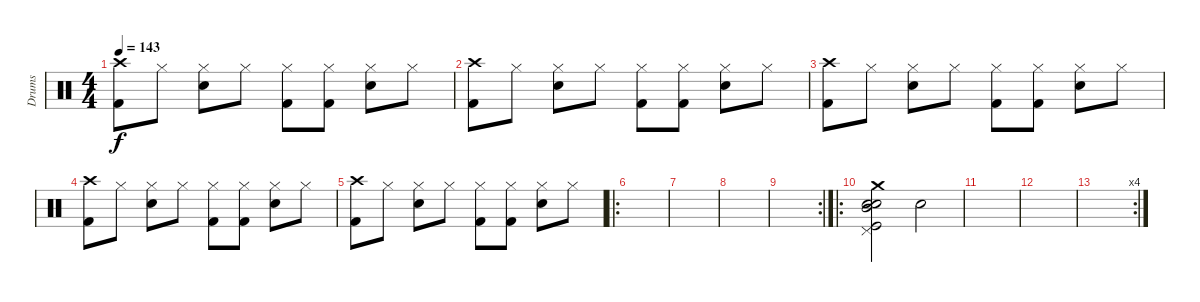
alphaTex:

\track ("Drums" "Drums") {instrument percussion}
\staff {score}
\articulation defaults
\ts (4 4)
\tempo 143
\clef neutral
\ks c
("Crash high (hit)" "Kick (hit) 2").8{dy f} "Hi-Hat (closed)".8 ("Hi-Hat (closed)" "Electric Snare (hit)").8 "Hi-Hat (closed)".8 ("Hi-Hat (closed)" "Kick (hit) 2").8 ("Hi-Hat (closed)" "Kick (hit) 2").8 ("Hi-Hat (closed)" "Electric Snare (hit)").8 "Hi-Hat (closed)".8 |
("Crash high (hit)" "Kick (hit) 2").8 "Hi-Hat (closed)".8 ("Hi-Hat (closed)" "Electric Snare (hit)").8 "Hi-Hat (closed)".8 ("Hi-Hat (closed)" "Kick (hit) 2").8 ("Hi-Hat (closed)" "Kick (hit) 2").8 ("Hi-Hat (closed)" "Electric Snare (hit)").8 "Hi-Hat (closed)".8 |
("Crash high (hit)" "Kick (hit) 2").8 "Hi-Hat (closed)".8 ("Hi-Hat (closed)" "Electric Snare (hit)").8 "Hi-Hat (closed)".8 ("Hi-Hat (closed)" "Kick (hit) 2").8 ("Hi-Hat (closed)" "Kick (hit) 2").8 ("Hi-Hat (closed)" "Electric Snare (hit)").8 "Hi-Hat (closed)".8 |
("Crash high (hit)" "Kick (hit) 2").8 "Hi-Hat (closed)".8 ("Hi-Hat (closed)" "Electric Snare (hit)").8 "Hi-Hat (closed)".8 ("Hi-Hat (closed)" "Kick (hit) 2").8 ("Hi-Hat (closed)" "Kick (hit) 2").8 ("Hi-Hat (closed)" "Electric Snare (hit)").8 "Hi-Hat (closed)".8 |
("Crash high (hit)" "Kick (hit) 2").8 "Hi-Hat (closed)".8 ("Hi-Hat (closed)" "Electric Snare (hit)").8 "Hi-Hat (closed)".8 ("Hi-Hat (closed)" "Kick (hit) 2").8 ("Hi-Hat (closed)" "Kick (hit) 2").8 ("Hi-Hat (closed)" "Electric Snare (hit)").8 "Hi-Hat (closed)".8 |
\ro
|
|
|
\rc 2
|
\ro
("Electric Snare (hit)" "Snare (hit) 2" "Pedal Hi-Hat (hit)" "Mid Tom (hit)" "Kick (hit)" "Crash medium (hit)").2 "Snare (hit)"{x}.2 |
|
|
\rc 4
